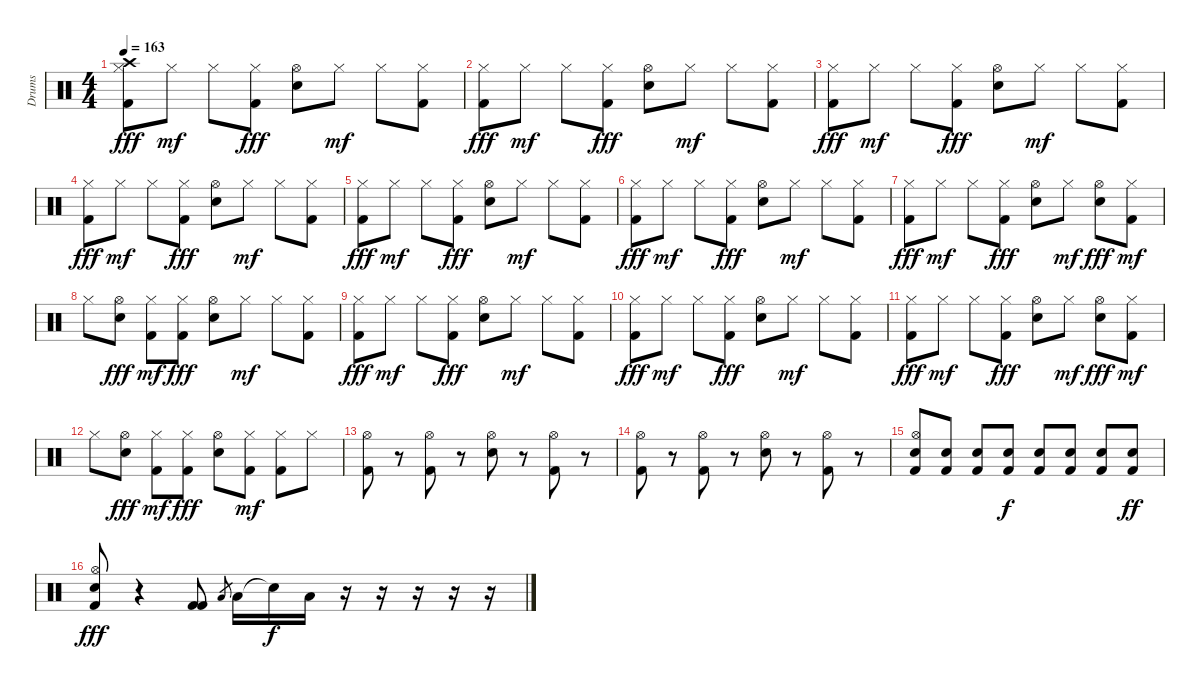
\track ("Drums" "Drums") {instrument percussion}
\staff {score}
\articulation defaults
\ts (4 4)
\tempo 163
\clef neutral
\ks c
("Hi-Hat (closed)" "Crash high (hit)" "Kick (hit) 2").8{dy fff} "Hi-Hat (closed)".8{dy mf} "Hi-Hat (closed)".8 ("Hi-Hat (closed)" "Kick (hit) 2").8{dy fff} ("Hi-Hat (open)" "Electric Snare (hit)").8 "Hi-Hat (closed)".8{dy mf} "Hi-Hat (closed)".8 ("Kick (hit) 2" "Hi-Hat (closed)").8 |
("Hi-Hat (closed)" "Kick (hit) 2").8{dy fff} "Hi-Hat (closed)".8{dy mf} "Hi-Hat (closed)".8 ("Hi-Hat (closed)" "Kick (hit) 2").8{dy fff} ("Hi-Hat (open)" "Electric Snare (hit)").8 "Hi-Hat (closed)".8{dy mf} "Hi-Hat (closed)".8 ("Kick (hit) 2" "Hi-Hat (closed)").8 |
("Hi-Hat (closed)" "Kick (hit) 2").8{dy fff} "Hi-Hat (closed)".8{dy mf} "Hi-Hat (closed)".8 ("Hi-Hat (closed)" "Kick (hit) 2").8{dy fff} ("Hi-Hat (open)" "Electric Snare (hit)").8 "Hi-Hat (closed)".8{dy mf} "Hi-Hat (closed)".8 ("Kick (hit) 2" "Hi-Hat (closed)").8 |
("Hi-Hat (closed)" "Kick (hit) 2").8{dy fff} "Hi-Hat (closed)".8{dy mf} "Hi-Hat (closed)".8 ("Hi-Hat (closed)" "Kick (hit) 2").8{dy fff} ("Hi-Hat (open)" "Electric Snare (hit)").8 "Hi-Hat (closed)".8{dy mf} "Hi-Hat (closed)".8 ("Kick (hit) 2" "Hi-Hat (closed)").8 |
("Hi-Hat (closed)" "Kick (hit) 2").8{dy fff} "Hi-Hat (closed)".8{dy mf} "Hi-Hat (closed)".8 ("Hi-Hat (closed)" "Kick (hit) 2").8{dy fff} ("Hi-Hat (open)" "Electric Snare (hit)").8 "Hi-Hat (closed)".8{dy mf} "Hi-Hat (closed)".8 ("Kick (hit) 2" "Hi-Hat (closed)").8 |
("Hi-Hat (closed)" "Kick (hit) 2").8{dy fff} "Hi-Hat (closed)".8{dy mf} "Hi-Hat (closed)".8 ("Hi-Hat (closed)" "Kick (hit) 2").8{dy fff} ("Hi-Hat (open)" "Electric Snare (hit)").8 "Hi-Hat (closed)".8{dy mf} "Hi-Hat (closed)".8 ("Kick (hit) 2" "Hi-Hat (closed)").8 |
("Hi-Hat (closed)" "Kick (hit) 2").8{dy fff} "Hi-Hat (closed)".8{dy mf} "Hi-Hat (closed)".8 ("Hi-Hat (closed)" "Kick (hit) 2").8{dy fff} ("Hi-Hat (open)" "Electric Snare (hit)").8 "Hi-Hat (closed)".8{dy mf} ("Hi-Hat (open)" "Electric Snare (hit)").8{dy fff} ("Kick (hit) 2" "Hi-Hat (closed)").8{dy mf} |
"Hi-Hat (closed)".8 ("Hi-Hat (open)" "Electric Snare (hit)").8{dy fff} ("Kick (hit) 2" "Hi-Hat (closed)").8{dy mf} ("Hi-Hat (closed)" "Kick (hit) 2").8{dy fff} ("Hi-Hat (open)" "Electric Snare (hit)").8 "Hi-Hat (closed)".8{dy mf} "Hi-Hat (closed)".8 ("Kick (hit) 2" "Hi-Hat (closed)").8 |
("Hi-Hat (closed)" "Kick (hit) 2").8{dy fff} "Hi-Hat (closed)".8{dy mf} "Hi-Hat (closed)".8 ("Hi-Hat (closed)" "Kick (hit) 2").8{dy fff} ("Hi-Hat (open)" "Electric Snare (hit)").8 "Hi-Hat (closed)".8{dy mf} "Hi-Hat (closed)".8 ("Kick (hit) 2" "Hi-Hat (closed)").8 |
("Hi-Hat (closed)" "Kick (hit) 2").8{dy fff} "Hi-Hat (closed)".8{dy mf} "Hi-Hat (closed)".8 ("Hi-Hat (closed)" "Kick (hit) 2").8{dy fff} ("Hi-Hat (open)" "Electric Snare (hit)").8 "Hi-Hat (closed)".8{dy mf} "Hi-Hat (closed)".8 ("Kick (hit) 2" "Hi-Hat (closed)").8 |
("Hi-Hat (closed)" "Kick (hit) 2").8{dy fff} "Hi-Hat (closed)".8{dy mf} "Hi-Hat (closed)".8 ("Hi-Hat (closed)" "Kick (hit) 2").8{dy fff} ("Hi-Hat (open)" "Electric Snare (hit)").8 "Hi-Hat (closed)".8{dy mf} ("Hi-Hat (open)" "Electric Snare (hit)").8{dy fff} ("Kick (hit) 2" "Hi-Hat (closed)").8{dy mf} |
"Hi-Hat (closed)".8 ("Hi-Hat (open)" "Electric Snare (hit)").8{dy fff} ("Kick (hit) 2" "Hi-Hat (closed)").8{dy mf} ("Hi-Hat (closed)" "Kick (hit) 2").8{dy fff} ("Hi-Hat (open)" "Electric Snare (hit)").8 ("Kick (hit) 2" "Hi-Hat (closed)").8{dy mf} ("Kick (hit) 2" "Hi-Hat (closed)").8 "Hi-Hat (closed)".8 |
("Hi-Hat (open)" "Kick (hit) 2").8 r.8 ("Hi-Hat (open)" "Kick (hit) 2").8 r.8 ("Electric Snare (hit)" "Hi-Hat (open)").8 r.8 ("Hi-Hat (open)" "Kick (hit) 2").8 r.8 |
("Hi-Hat (open)" "Kick (hit) 2").8 r.8 ("Hi-Hat (open)" "Kick (hit) 2").8 r.8 ("Electric Snare (hit)" "Hi-Hat (open)").8 r.8 ("Hi-Hat (open)" "Kick (hit) 2").8 r.8 |
("Kick (hit) 2" "Electric Snare (hit)" "Hi-Hat (open)").8 ("Kick (hit) 2" "Electric Snare (hit)").8 ("Kick (hit) 2" "Electric Snare (hit)").8 ("Kick (hit) 2" "Electric Snare (hit)").8{dy f} ("Kick (hit) 2" "Electric Snare (hit)").8 ("Kick (hit) 2" "Electric Snare (hit)").8 ("Kick (hit) 2" "Electric Snare (hit)").8 ("Kick (hit) 2" "Electric Snare (hit)").8{dy ff} |
("Hi-Hat (open)" "Kick (hit) 2" "Electric Snare (hit)").8{dy fff} r.4 ("Kick (hit) 2" "Kick (hit) 2").8 "Low Tom (hit)".8{gr} "Low Tom (hit)".16 "Snare (hit) 2"{t}.16{dy f} "Low Tom (hit)".16 r.16 r.16 r.16 r.16 r.16
